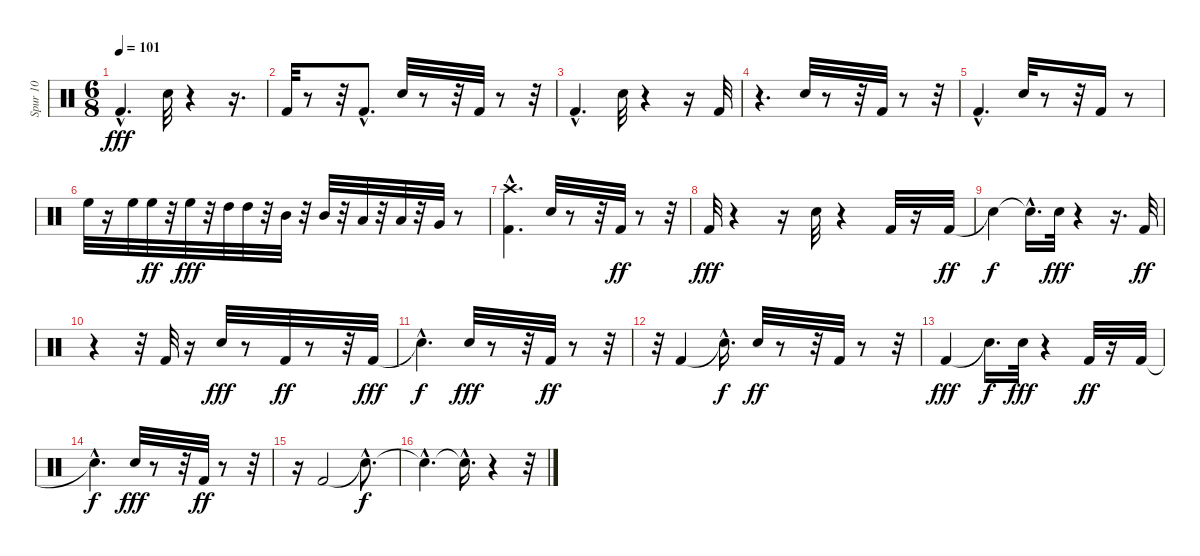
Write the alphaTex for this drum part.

\track ("Spur 10" "Spur 10") {instrument percussion}
\staff {score}
\articulation defaults
\ts (6 8)
\tempo 101
\clef neutral
\ks c "Kick (hit) 2"{hac}.4{d dy fff} "Electric Snare (hit)".32
r.4 r.16{d} |
"Kick (hit) 2".32 r.8 r.32 "Kick (hit) 2"{hac}.8{d} "Electric Snare (hit)".32 r.8 r.32 "Kick (hit) 2".32 r.8 r.32 |
"Kick (hit) 2"{hac}.4{d} "Electric Snare (hit)".32 r.4 r.16 "Kick (hit) 2".32 |
r.4{d} "Electric Snare (hit)".32 r.8 r.32 "Kick (hit) 2".32 r.8 r.32 |
"Kick (hit) 2"{hac}.4{d} "Electric Snare (hit)".32 r.8 r.32 "Kick (hit) 2".16 r.8 |
"High Floor Tom (hit)".32 r.16 "High Floor Tom (hit)".32 "High Floor Tom (hit)".32{dy ff} r.32 "High Floor Tom (hit)".32{dy fff} r.32 "High Tom (hit)".32 "High Tom (hit)".32 r.32 "Mid Tom (hit)".32 r.32 "Mid Tom (hit)".32 r.32 "Low Tom (hit)".32 r.32 "Low Tom (hit)".32 r.32 "Very Low Tom (hit)".32 r.8 |
("Crash high (hit)" "Kick (hit) 2"{hac}).4{d} "Electric Snare (hit)".32 r.8 r.32 "Kick (hit) 2".32{dy ff} r.8 r.32 |
"Kick (hit) 2".32{dy fff} r.4 r.16 "Electric Snare (hit)".32 r.4 "Kick (hit) 2".32 r.16 "Kick (hit) 2".32{dy ff} |
"Snare (hit)"{t}.4{dy f} "Snare (hit)"{hac t}.16{d} "Electric Snare (hit)".32{dy fff} r.4 r.16{d} "Kick (hit) 2".32{dy ff} |
r.4 r.32 "Kick (hit) 2".32 r.16 "Electric Snare (hit)".32{dy fff} r.8 "Kick (hit) 2".32{dy ff} r.8 r.32 "Kick (hit) 2".32{dy fff} |
"Snare (hit)"{hac t}.4{d dy f} "Electric Snare (hit)".32{dy fff} r.8 r.32 "Kick (hit) 2".32{dy ff} r.8 r.32 |
r.32 "Kick (hit) 2".4 "Snare (hit)"{hac t}.16{d dy f} "Electric Snare (hit)".32{dy ff} r.8 r.32 "Kick (hit) 2".32 r.8 r.32 |
"Kick (hit) 2".4{dy fff} "Snare (hit)"{t}.16{d dy f} "Electric Snare (hit)".32{dy fff} r.4 "Kick (hit) 2".32{dy ff} r.16 "Kick (hit) 2".32 |
"Snare (hit)"{hac t}.4{d dy f} "Electric Snare (hit)".32{dy fff} r.8 r.32 "Kick (hit) 2".32{dy ff} r.8 r.32 |
r.16 "Kick (hit) 2".2 "Snare (hit)"{hac t}.8{d dy f} |
"Snare (hit)"{hac t}.4{d} "Snare (hit)"{hac t}.16{d} r.4 r.32
